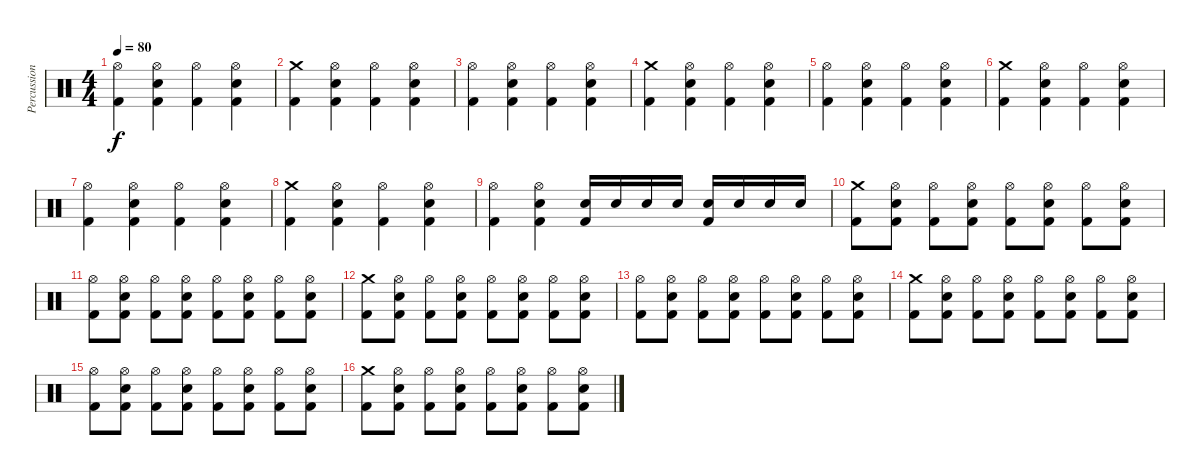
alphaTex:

\track ("Percussion" "Percussion") {instrument percussion}
\staff {score}
\articulation defaults
\ts (4 4)
\tempo 80
\clef neutral
\ks c
("Hi-Hat (open)" "Kick (hit) 2").4{dy f} ("Hi-Hat (open)" "Electric Snare (hit)" "Kick (hit) 2").4 ("Hi-Hat (open)" "Kick (hit) 2").4 ("Hi-Hat (open)" "Electric Snare (hit)" "Kick (hit) 2").4 |
("Crash medium (hit)" "Kick (hit) 2").4 ("Hi-Hat (open)" "Electric Snare (hit)" "Kick (hit) 2").4 ("Hi-Hat (open)" "Kick (hit) 2").4 ("Hi-Hat (open)" "Electric Snare (hit)" "Kick (hit) 2").4 |
("Hi-Hat (open)" "Kick (hit) 2").4 ("Hi-Hat (open)" "Electric Snare (hit)" "Kick (hit) 2").4 ("Hi-Hat (open)" "Kick (hit) 2").4 ("Hi-Hat (open)" "Electric Snare (hit)" "Kick (hit) 2").4 |
("Crash medium (hit)" "Kick (hit) 2").4 ("Hi-Hat (open)" "Electric Snare (hit)" "Kick (hit) 2").4 ("Hi-Hat (open)" "Kick (hit) 2").4 ("Hi-Hat (open)" "Electric Snare (hit)" "Kick (hit) 2").4 |
("Hi-Hat (open)" "Kick (hit) 2").4 ("Hi-Hat (open)" "Electric Snare (hit)" "Kick (hit) 2").4 ("Hi-Hat (open)" "Kick (hit) 2").4 ("Hi-Hat (open)" "Electric Snare (hit)" "Kick (hit) 2").4 |
("Crash medium (hit)" "Kick (hit) 2").4 ("Hi-Hat (open)" "Electric Snare (hit)" "Kick (hit) 2").4 ("Hi-Hat (open)" "Kick (hit) 2").4 ("Hi-Hat (open)" "Electric Snare (hit)" "Kick (hit) 2").4 |
("Hi-Hat (open)" "Kick (hit) 2").4 ("Hi-Hat (open)" "Electric Snare (hit)" "Kick (hit) 2").4 ("Hi-Hat (open)" "Kick (hit) 2").4 ("Hi-Hat (open)" "Electric Snare (hit)" "Kick (hit) 2").4 |
("Crash medium (hit)" "Kick (hit) 2").4 ("Hi-Hat (open)" "Electric Snare (hit)" "Kick (hit) 2").4 ("Hi-Hat (open)" "Kick (hit) 2").4 ("Hi-Hat (open)" "Electric Snare (hit)" "Kick (hit) 2").4 |
("Hi-Hat (open)" "Kick (hit) 2").4 ("Hi-Hat (open)" "Electric Snare (hit)" "Kick (hit) 2").4 ("Electric Snare (hit)" "Kick (hit) 2").16 "Electric Snare (hit)".16 "Electric Snare (hit)".16 "Electric Snare (hit)".16 ("Electric Snare (hit)" "Kick (hit) 2").16 "Electric Snare (hit)".16 "Electric Snare (hit)".16 "Electric Snare (hit)".16 |
("Crash medium (hit)" "Kick (hit) 2").8 ("Hi-Hat (open)" "Electric Snare (hit)" "Kick (hit) 2").8 ("Hi-Hat (open)" "Kick (hit) 2").8 ("Hi-Hat (open)" "Electric Snare (hit)" "Kick (hit) 2").8 ("Hi-Hat (open)" "Kick (hit) 2").8 ("Hi-Hat (open)" "Electric Snare (hit)" "Kick (hit) 2").8 ("Hi-Hat (open)" "Kick (hit) 2").8 ("Hi-Hat (open)" "Electric Snare (hit)" "Kick (hit) 2").8 |
("Hi-Hat (open)" "Kick (hit) 2").8 ("Hi-Hat (open)" "Electric Snare (hit)" "Kick (hit) 2").8 ("Hi-Hat (open)" "Kick (hit) 2").8 ("Hi-Hat (open)" "Electric Snare (hit)" "Kick (hit) 2").8 ("Hi-Hat (open)" "Kick (hit) 2").8 ("Hi-Hat (open)" "Electric Snare (hit)" "Kick (hit) 2").8 ("Hi-Hat (open)" "Kick (hit) 2").8 ("Hi-Hat (open)" "Electric Snare (hit)" "Kick (hit) 2").8 |
("Crash medium (hit)" "Kick (hit) 2").8 ("Hi-Hat (open)" "Electric Snare (hit)" "Kick (hit) 2").8 ("Hi-Hat (open)" "Kick (hit) 2").8 ("Hi-Hat (open)" "Electric Snare (hit)" "Kick (hit) 2").8 ("Hi-Hat (open)" "Kick (hit) 2").8 ("Hi-Hat (open)" "Electric Snare (hit)" "Kick (hit) 2").8 ("Hi-Hat (open)" "Kick (hit) 2").8 ("Hi-Hat (open)" "Electric Snare (hit)" "Kick (hit) 2").8 |
("Hi-Hat (open)" "Kick (hit) 2").8 ("Hi-Hat (open)" "Electric Snare (hit)" "Kick (hit) 2").8 ("Hi-Hat (open)" "Kick (hit) 2").8 ("Hi-Hat (open)" "Electric Snare (hit)" "Kick (hit) 2").8 ("Hi-Hat (open)" "Kick (hit) 2").8 ("Hi-Hat (open)" "Electric Snare (hit)" "Kick (hit) 2").8 ("Hi-Hat (open)" "Kick (hit) 2").8 ("Hi-Hat (open)" "Electric Snare (hit)" "Kick (hit) 2").8 |
("Crash medium (hit)" "Kick (hit) 2").8 ("Hi-Hat (open)" "Electric Snare (hit)" "Kick (hit) 2").8 ("Hi-Hat (open)" "Kick (hit) 2").8 ("Hi-Hat (open)" "Electric Snare (hit)" "Kick (hit) 2").8 ("Hi-Hat (open)" "Kick (hit) 2").8 ("Hi-Hat (open)" "Electric Snare (hit)" "Kick (hit) 2").8 ("Hi-Hat (open)" "Kick (hit) 2").8 ("Hi-Hat (open)" "Electric Snare (hit)" "Kick (hit) 2").8 |
("Hi-Hat (open)" "Kick (hit) 2").8 ("Hi-Hat (open)" "Electric Snare (hit)" "Kick (hit) 2").8 ("Hi-Hat (open)" "Kick (hit) 2").8 ("Hi-Hat (open)" "Electric Snare (hit)" "Kick (hit) 2").8 ("Hi-Hat (open)" "Kick (hit) 2").8 ("Hi-Hat (open)" "Electric Snare (hit)" "Kick (hit) 2").8 ("Hi-Hat (open)" "Kick (hit) 2").8 ("Hi-Hat (open)" "Electric Snare (hit)" "Kick (hit) 2").8 |
("Crash medium (hit)" "Kick (hit) 2").8 ("Hi-Hat (open)" "Electric Snare (hit)" "Kick (hit) 2").8 ("Hi-Hat (open)" "Kick (hit) 2").8 ("Hi-Hat (open)" "Electric Snare (hit)" "Kick (hit) 2").8 ("Hi-Hat (open)" "Kick (hit) 2").8 ("Hi-Hat (open)" "Electric Snare (hit)" "Kick (hit) 2").8 ("Hi-Hat (open)" "Kick (hit) 2").8 ("Hi-Hat (open)" "Electric Snare (hit)" "Kick (hit) 2").8
